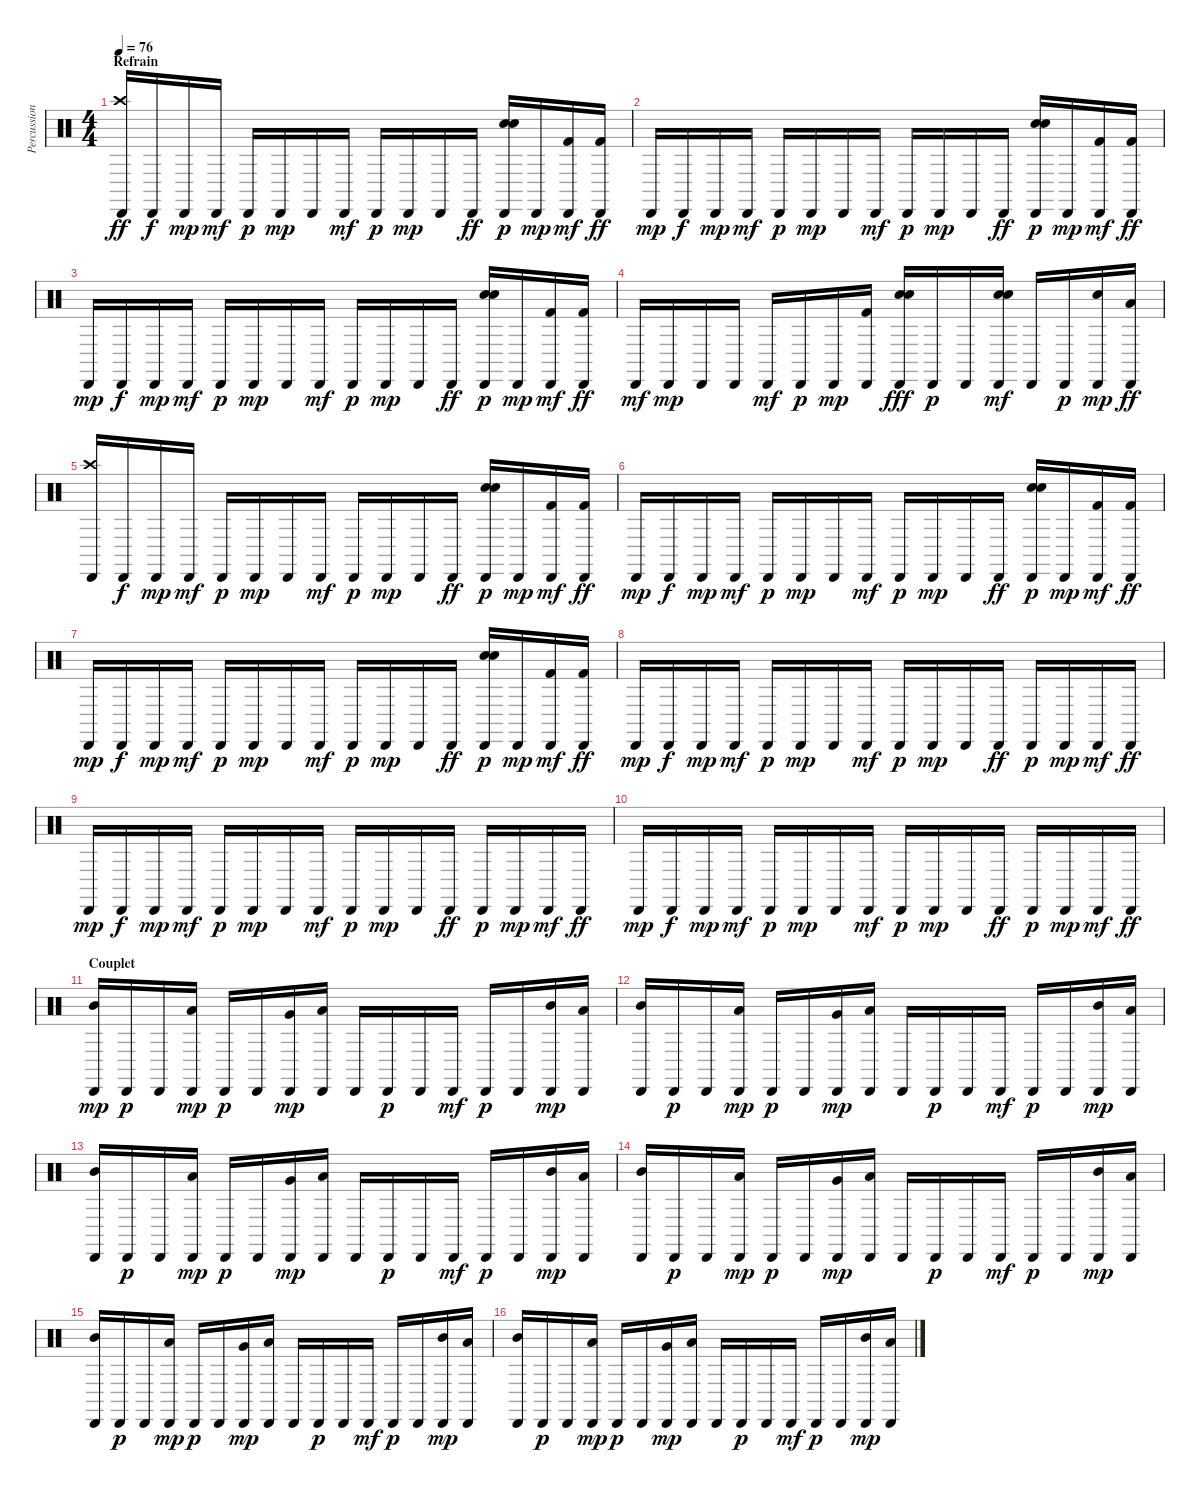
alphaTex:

\track ("Percussions" "Percussion") {instrument percussion}
\staff {score}
\articulation defaults
\ts (4 4)
\section ("" "Refrain")
\tempo 76
\clef neutral
\ks c
("Cabasa (hit)" "Crash high (hit)").16{dy ff} "Cabasa (hit)".16{dy f} "Cabasa (hit)".16{dy mp} "Cabasa (hit)".16{dy mf} "Cabasa (hit)".16{dy p} "Cabasa (hit)".16{dy mp} "Cabasa (hit)".16 "Cabasa (hit)".16{dy mf} "Cabasa (hit)".16{dy p} "Cabasa (hit)".16{dy mp} "Cabasa (hit)".16 "Cabasa (hit)".16{dy ff} ("Cabasa (hit)" "Electric Snare (hit)" "Snare (hit) 2").16{dy p} "Cabasa (hit)".16{dy mp} ("Cabasa (hit)" "Kick (hit) 2").16{dy mf} ("Cabasa (hit)" "Kick (hit) 2").16{dy ff} |
"Cabasa (hit)".16{dy mp} "Cabasa (hit)".16{dy f} "Cabasa (hit)".16{dy mp} "Cabasa (hit)".16{dy mf} "Cabasa (hit)".16{dy p} "Cabasa (hit)".16{dy mp} "Cabasa (hit)".16 "Cabasa (hit)".16{dy mf} "Cabasa (hit)".16{dy p} "Cabasa (hit)".16{dy mp} "Cabasa (hit)".16 "Cabasa (hit)".16{dy ff} ("Cabasa (hit)" "Electric Snare (hit)" "Snare (hit) 2").16{dy p} "Cabasa (hit)".16{dy mp} ("Cabasa (hit)" "Kick (hit) 2").16{dy mf} ("Cabasa (hit)" "Kick (hit) 2").16{dy ff} |
"Cabasa (hit)".16{dy mp} "Cabasa (hit)".16{dy f} "Cabasa (hit)".16{dy mp} "Cabasa (hit)".16{dy mf} "Cabasa (hit)".16{dy p} "Cabasa (hit)".16{dy mp} "Cabasa (hit)".16 "Cabasa (hit)".16{dy mf} "Cabasa (hit)".16{dy p} "Cabasa (hit)".16{dy mp} "Cabasa (hit)".16 "Cabasa (hit)".16{dy ff} ("Cabasa (hit)" "Electric Snare (hit)" "Snare (hit) 2").16{dy p} "Cabasa (hit)".16{dy mp} ("Cabasa (hit)" "Kick (hit) 2").16{dy mf} ("Cabasa (hit)" "Kick (hit) 2").16{dy ff} |
"Cabasa (hit)".16{dy mf} "Cabasa (hit)".16{dy mp} "Cabasa (hit)".16 "Cabasa (hit)".16 "Cabasa (hit)".16{dy mf} "Cabasa (hit)".16{dy p} "Cabasa (hit)".16{dy mp} ("Cabasa (hit)" "Kick (hit) 2").16 ("Cabasa (hit)" "Electric Snare (hit)" "Snare (hit) 2").16{dy fff} "Cabasa (hit)".16{dy p} "Cabasa (hit)".16 ("Cabasa (hit)" "Electric Snare (hit)" "Snare (hit) 2").16{dy mf} "Cabasa (hit)".16 "Cabasa (hit)".16{dy p} ("Cabasa (hit)" "Electric Snare (hit)").16{dy mp} ("Cabasa (hit)" "Low Floor Tom (hit)").16{dy ff} |
("Cabasa (hit)" "Crash high (hit)").16 "Cabasa (hit)".16{dy f} "Cabasa (hit)".16{dy mp} "Cabasa (hit)".16{dy mf} "Cabasa (hit)".16{dy p} "Cabasa (hit)".16{dy mp} "Cabasa (hit)".16 "Cabasa (hit)".16{dy mf} "Cabasa (hit)".16{dy p} "Cabasa (hit)".16{dy mp} "Cabasa (hit)".16 "Cabasa (hit)".16{dy ff} ("Cabasa (hit)" "Electric Snare (hit)" "Snare (hit) 2").16{dy p} "Cabasa (hit)".16{dy mp} ("Cabasa (hit)" "Kick (hit) 2").16{dy mf} ("Cabasa (hit)" "Kick (hit) 2").16{dy ff} |
"Cabasa (hit)".16{dy mp} "Cabasa (hit)".16{dy f} "Cabasa (hit)".16{dy mp} "Cabasa (hit)".16{dy mf} "Cabasa (hit)".16{dy p} "Cabasa (hit)".16{dy mp} "Cabasa (hit)".16 "Cabasa (hit)".16{dy mf} "Cabasa (hit)".16{dy p} "Cabasa (hit)".16{dy mp} "Cabasa (hit)".16 "Cabasa (hit)".16{dy ff} ("Cabasa (hit)" "Electric Snare (hit)" "Snare (hit) 2").16{dy p} "Cabasa (hit)".16{dy mp} ("Cabasa (hit)" "Kick (hit) 2").16{dy mf} ("Cabasa (hit)" "Kick (hit) 2").16{dy ff} |
"Cabasa (hit)".16{dy mp} "Cabasa (hit)".16{dy f} "Cabasa (hit)".16{dy mp} "Cabasa (hit)".16{dy mf} "Cabasa (hit)".16{dy p} "Cabasa (hit)".16{dy mp} "Cabasa (hit)".16 "Cabasa (hit)".16{dy mf} "Cabasa (hit)".16{dy p} "Cabasa (hit)".16{dy mp} "Cabasa (hit)".16 "Cabasa (hit)".16{dy ff} ("Cabasa (hit)" "Electric Snare (hit)" "Snare (hit) 2").16{dy p} "Cabasa (hit)".16{dy mp} ("Cabasa (hit)" "Kick (hit) 2").16{dy mf} ("Cabasa (hit)" "Kick (hit) 2").16{dy ff} |
"Cabasa (hit)".16{dy mp} "Cabasa (hit)".16{dy f} "Cabasa (hit)".16{dy mp} "Cabasa (hit)".16{dy mf} "Cabasa (hit)".16{dy p} "Cabasa (hit)".16{dy mp} "Cabasa (hit)".16 "Cabasa (hit)".16{dy mf} "Cabasa (hit)".16{dy p} "Cabasa (hit)".16{dy mp} "Cabasa (hit)".16 "Cabasa (hit)".16{dy ff} "Cabasa (hit)".16{dy p} "Cabasa (hit)".16{dy mp} "Cabasa (hit)".16{dy mf} "Cabasa (hit)".16{dy ff} |
"Cabasa (hit)".16{dy mp} "Cabasa (hit)".16{dy f} "Cabasa (hit)".16{dy mp} "Cabasa (hit)".16{dy mf} "Cabasa (hit)".16{dy p} "Cabasa (hit)".16{dy mp} "Cabasa (hit)".16 "Cabasa (hit)".16{dy mf} "Cabasa (hit)".16{dy p} "Cabasa (hit)".16{dy mp} "Cabasa (hit)".16 "Cabasa (hit)".16{dy ff} "Cabasa (hit)".16{dy p} "Cabasa (hit)".16{dy mp} "Cabasa (hit)".16{dy mf} "Cabasa (hit)".16{dy ff} |
"Cabasa (hit)".16{dy mp} "Cabasa (hit)".16{dy f} "Cabasa (hit)".16{dy mp} "Cabasa (hit)".16{dy mf} "Cabasa (hit)".16{dy p} "Cabasa (hit)".16{dy mp} "Cabasa (hit)".16 "Cabasa (hit)".16{dy mf} "Cabasa (hit)".16{dy p} "Cabasa (hit)".16{dy mp} "Cabasa (hit)".16 "Cabasa (hit)".16{dy ff} "Cabasa (hit)".16{dy p} "Cabasa (hit)".16{dy mp} "Cabasa (hit)".16{dy mf} "Cabasa (hit)".16{dy ff} |
\section ("" "Couplet")
("Cabasa (hit)" "Mid Tom (hit)").16{dy mp} "Cabasa (hit)".16{dy p} "Cabasa (hit)".16 ("Cabasa (hit)" "Low Tom (hit)").16{dy mp} "Cabasa (hit)".16{dy p} "Cabasa (hit)".16 ("Cabasa (hit)" "Very Low Tom (hit)").16{dy mp} ("Cabasa (hit)" "Low Floor Tom (hit)").16 "Cabasa (hit)".16 "Cabasa (hit)".16{dy p} "Cabasa (hit)".16 "Cabasa (hit)".16{dy mf} "Cabasa (hit)".16{dy p} "Cabasa (hit)".16 ("Cabasa (hit)" "Mid Tom (hit)").16{dy mp} ("Cabasa (hit)" "Low Floor Tom (hit)").16 |
("Cabasa (hit)" "Mid Tom (hit)").16 "Cabasa (hit)".16{dy p} "Cabasa (hit)".16 ("Cabasa (hit)" "Low Tom (hit)").16{dy mp} "Cabasa (hit)".16{dy p} "Cabasa (hit)".16 ("Cabasa (hit)" "Very Low Tom (hit)").16{dy mp} ("Cabasa (hit)" "Low Floor Tom (hit)").16 "Cabasa (hit)".16 "Cabasa (hit)".16{dy p} "Cabasa (hit)".16 "Cabasa (hit)".16{dy mf} "Cabasa (hit)".16{dy p} "Cabasa (hit)".16 ("Cabasa (hit)" "Mid Tom (hit)").16{dy mp} ("Cabasa (hit)" "Low Floor Tom (hit)").16 |
("Cabasa (hit)" "Mid Tom (hit)").16 "Cabasa (hit)".16{dy p} "Cabasa (hit)".16 ("Cabasa (hit)" "Low Tom (hit)").16{dy mp} "Cabasa (hit)".16{dy p} "Cabasa (hit)".16 ("Cabasa (hit)" "Very Low Tom (hit)").16{dy mp} ("Cabasa (hit)" "Low Floor Tom (hit)").16 "Cabasa (hit)".16 "Cabasa (hit)".16{dy p} "Cabasa (hit)".16 "Cabasa (hit)".16{dy mf} "Cabasa (hit)".16{dy p} "Cabasa (hit)".16 ("Cabasa (hit)" "Mid Tom (hit)").16{dy mp} ("Cabasa (hit)" "Low Floor Tom (hit)").16 |
("Cabasa (hit)" "Mid Tom (hit)").16 "Cabasa (hit)".16{dy p} "Cabasa (hit)".16 ("Cabasa (hit)" "Low Tom (hit)").16{dy mp} "Cabasa (hit)".16{dy p} "Cabasa (hit)".16 ("Cabasa (hit)" "Very Low Tom (hit)").16{dy mp} ("Cabasa (hit)" "Low Floor Tom (hit)").16 "Cabasa (hit)".16 "Cabasa (hit)".16{dy p} "Cabasa (hit)".16 "Cabasa (hit)".16{dy mf} "Cabasa (hit)".16{dy p} "Cabasa (hit)".16 ("Cabasa (hit)" "Mid Tom (hit)").16{dy mp} ("Cabasa (hit)" "Low Floor Tom (hit)").16 |
("Cabasa (hit)" "Mid Tom (hit)").16 "Cabasa (hit)".16{dy p} "Cabasa (hit)".16 ("Cabasa (hit)" "Low Tom (hit)").16{dy mp} "Cabasa (hit)".16{dy p} "Cabasa (hit)".16 ("Cabasa (hit)" "Very Low Tom (hit)").16{dy mp} ("Cabasa (hit)" "Low Floor Tom (hit)").16 "Cabasa (hit)".16 "Cabasa (hit)".16{dy p} "Cabasa (hit)".16 "Cabasa (hit)".16{dy mf} "Cabasa (hit)".16{dy p} "Cabasa (hit)".16 ("Cabasa (hit)" "Mid Tom (hit)").16{dy mp} ("Cabasa (hit)" "Low Floor Tom (hit)").16 |
("Cabasa (hit)" "Mid Tom (hit)").16 "Cabasa (hit)".16{dy p} "Cabasa (hit)".16 ("Cabasa (hit)" "Low Tom (hit)").16{dy mp} "Cabasa (hit)".16{dy p} "Cabasa (hit)".16 ("Cabasa (hit)" "Very Low Tom (hit)").16{dy mp} ("Cabasa (hit)" "Low Floor Tom (hit)").16 "Cabasa (hit)".16 "Cabasa (hit)".16{dy p} "Cabasa (hit)".16 "Cabasa (hit)".16{dy mf} "Cabasa (hit)".16{dy p} "Cabasa (hit)".16 ("Cabasa (hit)" "Mid Tom (hit)").16{dy mp} ("Cabasa (hit)" "Low Floor Tom (hit)").16
